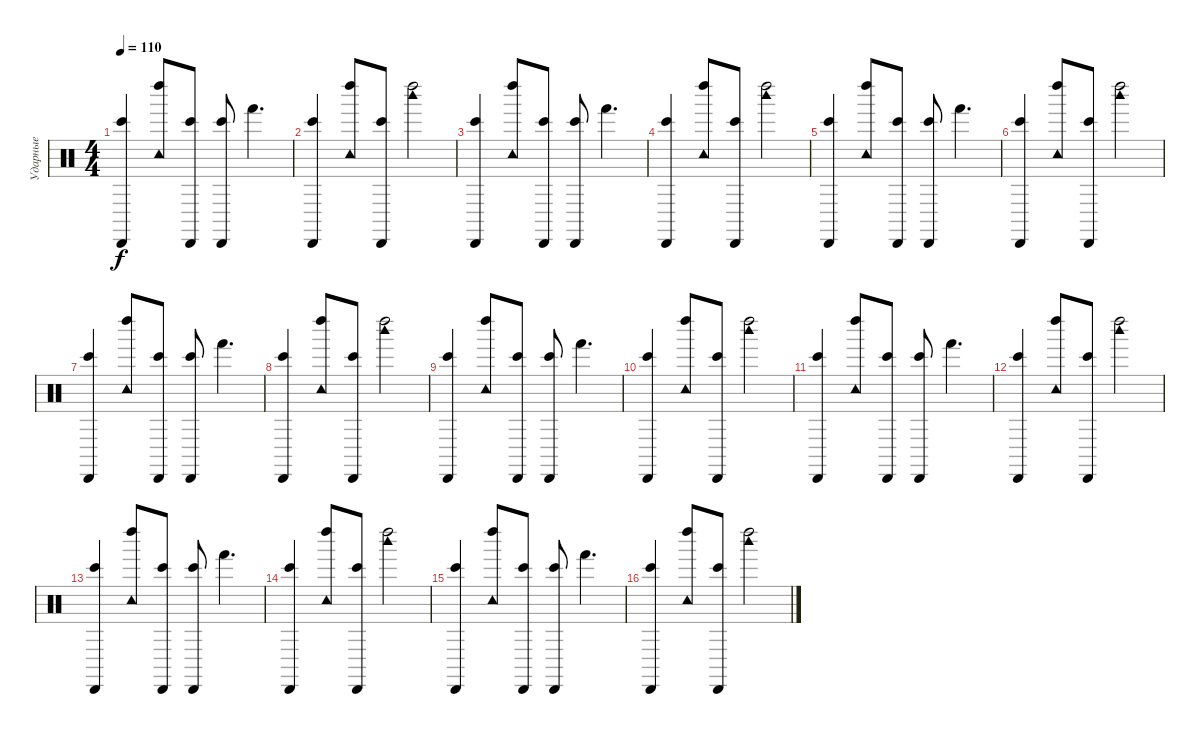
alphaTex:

\track ("Ударные" "Ударные") {instrument percussion}
\staff {score}
\articulation defaults
\ts (4 4)
\tempo 110
\clef neutral
\ks c
("Bongo High (hit)" "Cabasa (hit)").4{dy f} ("Tambourine (hit)" "Left Maraca (hit)").8 ("Bongo High (hit)" "Cabasa (hit)").8 ("Bongo High (hit)" "Cabasa (hit)").8 "Hand (hit)".4{d} |
("Bongo High (hit)" "Cabasa (hit)").4 ("Tambourine (hit)" "Left Maraca (hit)").8 ("Bongo High (hit)" "Cabasa (hit)").8 ("Woodblock high (hit)" "Left Maraca (hit)").2 |
("Bongo High (hit)" "Cabasa (hit)").4 ("Tambourine (hit)" "Left Maraca (hit)").8 ("Bongo High (hit)" "Cabasa (hit)").8 ("Bongo High (hit)" "Cabasa (hit)").8 "Hand (hit)".4{d} |
("Bongo High (hit)" "Cabasa (hit)").4 ("Tambourine (hit)" "Left Maraca (hit)").8 ("Bongo High (hit)" "Cabasa (hit)").8 ("Woodblock high (hit)" "Left Maraca (hit)").2 |
("Bongo High (hit)" "Cabasa (hit)").4 ("Tambourine (hit)" "Left Maraca (hit)").8 ("Bongo High (hit)" "Cabasa (hit)").8 ("Bongo High (hit)" "Cabasa (hit)").8 "Hand (hit)".4{d} |
("Bongo High (hit)" "Cabasa (hit)").4 ("Tambourine (hit)" "Left Maraca (hit)").8 ("Bongo High (hit)" "Cabasa (hit)").8 ("Woodblock high (hit)" "Left Maraca (hit)").2 |
("Bongo High (hit)" "Cabasa (hit)").4 ("Tambourine (hit)" "Left Maraca (hit)").8 ("Bongo High (hit)" "Cabasa (hit)").8 ("Bongo High (hit)" "Cabasa (hit)").8 "Hand (hit)".4{d} |
("Bongo High (hit)" "Cabasa (hit)").4 ("Tambourine (hit)" "Left Maraca (hit)").8 ("Bongo High (hit)" "Cabasa (hit)").8 ("Woodblock high (hit)" "Left Maraca (hit)").2 |
("Bongo High (hit)" "Cabasa (hit)").4 ("Tambourine (hit)" "Left Maraca (hit)").8 ("Bongo High (hit)" "Cabasa (hit)").8 ("Bongo High (hit)" "Cabasa (hit)").8 "Hand (hit)".4{d} |
("Bongo High (hit)" "Cabasa (hit)").4 ("Tambourine (hit)" "Left Maraca (hit)").8 ("Bongo High (hit)" "Cabasa (hit)").8 ("Woodblock high (hit)" "Left Maraca (hit)").2 |
("Bongo High (hit)" "Cabasa (hit)").4 ("Tambourine (hit)" "Left Maraca (hit)").8 ("Bongo High (hit)" "Cabasa (hit)").8 ("Bongo High (hit)" "Cabasa (hit)").8 "Hand (hit)".4{d} |
("Bongo High (hit)" "Cabasa (hit)").4 ("Tambourine (hit)" "Left Maraca (hit)").8 ("Bongo High (hit)" "Cabasa (hit)").8 ("Woodblock high (hit)" "Left Maraca (hit)").2 |
("Bongo High (hit)" "Cabasa (hit)").4 ("Tambourine (hit)" "Left Maraca (hit)").8 ("Bongo High (hit)" "Cabasa (hit)").8 ("Bongo High (hit)" "Cabasa (hit)").8 "Hand (hit)".4{d} |
("Bongo High (hit)" "Cabasa (hit)").4 ("Tambourine (hit)" "Left Maraca (hit)").8 ("Bongo High (hit)" "Cabasa (hit)").8 ("Woodblock high (hit)" "Left Maraca (hit)").2 |
("Bongo High (hit)" "Cabasa (hit)").4 ("Tambourine (hit)" "Left Maraca (hit)").8 ("Bongo High (hit)" "Cabasa (hit)").8 ("Bongo High (hit)" "Cabasa (hit)").8 "Hand (hit)".4{d} |
("Bongo High (hit)" "Cabasa (hit)").4 ("Tambourine (hit)" "Left Maraca (hit)").8 ("Bongo High (hit)" "Cabasa (hit)").8 ("Woodblock high (hit)" "Left Maraca (hit)").2
